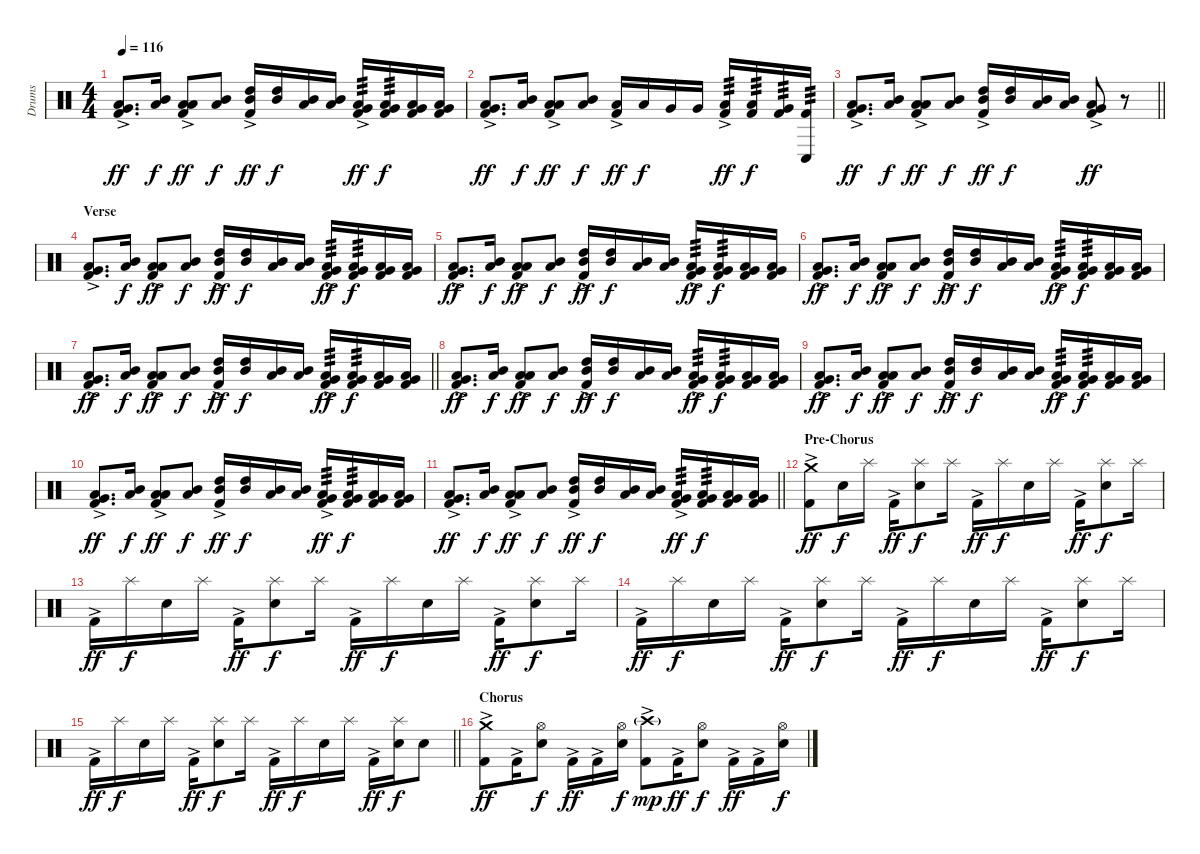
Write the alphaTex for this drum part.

\track ("Drums" "Drums") {instrument percussion}
\staff {score}
\articulation defaults
\ts (4 4)
\tempo 116
\clef neutral
\ks c
("Kick (hit) 2"{ac} "Low Floor Tom (hit)" "Very Low Tom (hit)").8{d dy ff} ("Mid Tom (hit)" "Low Floor Tom (hit)").16{dy f} ("Kick (hit) 2"{ac} "Low Tom (hit)" "Low Floor Tom (hit)").8{dy ff} ("Mid Tom (hit)" "Low Floor Tom (hit)").8{dy f} ("Kick (hit) 2"{ac} "Mid Tom (hit)" "High Tom (hit)").16{dy ff} ("Mid Tom (hit)" "High Tom (hit)").16{dy f} ("Low Tom (hit)" "Mid Tom (hit)").16 ("Low Tom (hit)" "Mid Tom (hit)").16 ("Kick (hit) 2"{ac} "Very Low Tom (hit)" "Low Tom (hit)").16{tp 3 dy ff} ("Kick (hit) 2" "Very Low Tom (hit)" "Low Tom (hit)").16{tp 3 dy f} ("Kick (hit) 2" "Low Floor Tom (hit)" "Very Low Tom (hit)").16 ("Kick (hit) 2" "Low Floor Tom (hit)" "Very Low Tom (hit)").16 |
("Kick (hit) 2"{ac} "Low Floor Tom (hit)" "Very Low Tom (hit)").8{d dy ff} ("Mid Tom (hit)" "Low Floor Tom (hit)").16{dy f} ("Kick (hit) 2"{ac} "Low Tom (hit)" "Low Floor Tom (hit)").8{dy ff} ("Mid Tom (hit)" "Low Floor Tom (hit)").8{dy f} ("Kick (hit) 2"{ac} "Low Tom (hit)").16{dy ff} "Low Tom (hit)".16{dy f} "Very Low Tom (hit)".16 "Very Low Tom (hit)".16 ("Kick (hit) 2"{ac} "Low Floor Tom (hit)").16{tp 3 dy ff} ("Kick (hit) 2" "Low Floor Tom (hit)").16{tp 3 dy f} ("Kick (hit) 2" "Very Low Tom (hit)").16{tp 3} ("Kick (hit) 2" "Conga low (hit)").16{tp 3} |
\barLineRight lightlight
("Kick (hit) 2"{ac} "Low Floor Tom (hit)" "Very Low Tom (hit)").8{d dy ff} ("Mid Tom (hit)" "Low Floor Tom (hit)").16{dy f} ("Kick (hit) 2"{ac} "Low Tom (hit)" "Low Floor Tom (hit)").8{dy ff} ("Mid Tom (hit)" "Low Floor Tom (hit)").8{dy f} ("Kick (hit) 2"{ac} "Mid Tom (hit)" "High Tom (hit)").16{dy ff} ("Mid Tom (hit)" "High Tom (hit)").16{dy f} ("Low Tom (hit)" "Mid Tom (hit)").16 ("Low Tom (hit)" "Mid Tom (hit)").16 ("Kick (hit) 2"{ac} "Low Floor Tom (hit)" "Very Low Tom (hit)").8{dy ff} r.8 |
\section ("" "Verse")
("Kick (hit) 2"{ac} "Low Floor Tom (hit)" "Very Low Tom (hit)").8{d} ("Mid Tom (hit)" "Low Floor Tom (hit)").16{dy f} ("Kick (hit) 2"{ac} "Low Tom (hit)" "Low Floor Tom (hit)").8{dy ff} ("Mid Tom (hit)" "Low Floor Tom (hit)").8{dy f} ("Kick (hit) 2"{ac} "Mid Tom (hit)" "High Tom (hit)").16{dy ff} ("Mid Tom (hit)" "High Tom (hit)").16{dy f} ("Low Tom (hit)" "Mid Tom (hit)").16 ("Low Tom (hit)" "Mid Tom (hit)").16 ("Kick (hit) 2"{ac} "Very Low Tom (hit)" "Low Tom (hit)").16{tp 3 dy ff} ("Kick (hit) 2" "Very Low Tom (hit)" "Low Tom (hit)").16{tp 3 dy f} ("Kick (hit) 2" "Low Floor Tom (hit)" "Very Low Tom (hit)").16 ("Kick (hit) 2" "Low Floor Tom (hit)" "Very Low Tom (hit)").16 |
("Kick (hit) 2"{ac} "Low Floor Tom (hit)" "Very Low Tom (hit)").8{d dy ff} ("Mid Tom (hit)" "Low Floor Tom (hit)").16{dy f} ("Kick (hit) 2"{ac} "Low Tom (hit)" "Low Floor Tom (hit)").8{dy ff} ("Mid Tom (hit)" "Low Floor Tom (hit)").8{dy f} ("Kick (hit) 2"{ac} "Mid Tom (hit)" "High Tom (hit)").16{dy ff} ("Mid Tom (hit)" "High Tom (hit)").16{dy f} ("Low Tom (hit)" "Mid Tom (hit)").16 ("Low Tom (hit)" "Mid Tom (hit)").16 ("Kick (hit) 2"{ac} "Very Low Tom (hit)" "Low Tom (hit)").16{tp 3 dy ff} ("Kick (hit) 2" "Very Low Tom (hit)" "Low Tom (hit)").16{tp 3 dy f} ("Kick (hit) 2" "Low Floor Tom (hit)" "Very Low Tom (hit)").16 ("Kick (hit) 2" "Low Floor Tom (hit)" "Very Low Tom (hit)").16 |
("Kick (hit) 2"{ac} "Low Floor Tom (hit)" "Very Low Tom (hit)").8{d dy ff} ("Mid Tom (hit)" "Low Floor Tom (hit)").16{dy f} ("Kick (hit) 2"{ac} "Low Tom (hit)" "Low Floor Tom (hit)").8{dy ff} ("Mid Tom (hit)" "Low Floor Tom (hit)").8{dy f} ("Kick (hit) 2"{ac} "Mid Tom (hit)" "High Tom (hit)").16{dy ff} ("Mid Tom (hit)" "High Tom (hit)").16{dy f} ("Low Tom (hit)" "Mid Tom (hit)").16 ("Low Tom (hit)" "Mid Tom (hit)").16 ("Kick (hit) 2"{ac} "Very Low Tom (hit)" "Low Tom (hit)").16{tp 3 dy ff} ("Kick (hit) 2" "Very Low Tom (hit)" "Low Tom (hit)").16{tp 3 dy f} ("Kick (hit) 2" "Low Floor Tom (hit)" "Very Low Tom (hit)").16 ("Kick (hit) 2" "Low Floor Tom (hit)" "Very Low Tom (hit)").16 |
\barLineRight lightlight
("Kick (hit) 2"{ac} "Low Floor Tom (hit)" "Very Low Tom (hit)").8{d dy ff} ("Mid Tom (hit)" "Low Floor Tom (hit)").16{dy f} ("Kick (hit) 2"{ac} "Low Tom (hit)" "Low Floor Tom (hit)").8{dy ff} ("Mid Tom (hit)" "Low Floor Tom (hit)").8{dy f} ("Kick (hit) 2"{ac} "Mid Tom (hit)" "High Tom (hit)").16{dy ff} ("Mid Tom (hit)" "High Tom (hit)").16{dy f} ("Low Tom (hit)" "Mid Tom (hit)").16 ("Low Tom (hit)" "Mid Tom (hit)").16 ("Kick (hit) 2"{ac} "Very Low Tom (hit)" "Low Tom (hit)").16{tp 3 dy ff} ("Kick (hit) 2" "Very Low Tom (hit)" "Low Tom (hit)").16{tp 3 dy f} ("Kick (hit) 2" "Low Floor Tom (hit)" "Very Low Tom (hit)").16 ("Kick (hit) 2" "Low Floor Tom (hit)" "Very Low Tom (hit)").16 |
\section ("" "")
("Kick (hit) 2"{ac} "Low Floor Tom (hit)" "Very Low Tom (hit)").8{d dy ff} ("Mid Tom (hit)" "Low Floor Tom (hit)").16{dy f} ("Kick (hit) 2"{ac} "Low Tom (hit)" "Low Floor Tom (hit)").8{dy ff} ("Mid Tom (hit)" "Low Floor Tom (hit)").8{dy f} ("Kick (hit) 2"{ac} "Mid Tom (hit)" "High Tom (hit)").16{dy ff} ("Mid Tom (hit)" "High Tom (hit)").16{dy f} ("Low Tom (hit)" "Mid Tom (hit)").16 ("Low Tom (hit)" "Mid Tom (hit)").16 ("Kick (hit) 2"{ac} "Very Low Tom (hit)" "Low Tom (hit)").16{tp 3 dy ff} ("Kick (hit) 2" "Very Low Tom (hit)" "Low Tom (hit)").16{tp 3 dy f} ("Kick (hit) 2" "Low Floor Tom (hit)" "Very Low Tom (hit)").16 ("Kick (hit) 2" "Low Floor Tom (hit)" "Very Low Tom (hit)").16 |
("Kick (hit) 2"{ac} "Low Floor Tom (hit)" "Very Low Tom (hit)").8{d dy ff} ("Mid Tom (hit)" "Low Floor Tom (hit)").16{dy f} ("Kick (hit) 2"{ac} "Low Tom (hit)" "Low Floor Tom (hit)").8{dy ff} ("Mid Tom (hit)" "Low Floor Tom (hit)").8{dy f} ("Kick (hit) 2"{ac} "Mid Tom (hit)" "High Tom (hit)").16{dy ff} ("Mid Tom (hit)" "High Tom (hit)").16{dy f} ("Low Tom (hit)" "Mid Tom (hit)").16 ("Low Tom (hit)" "Mid Tom (hit)").16 ("Kick (hit) 2"{ac} "Very Low Tom (hit)" "Low Tom (hit)").16{tp 3 dy ff} ("Kick (hit) 2" "Very Low Tom (hit)" "Low Tom (hit)").16{tp 3 dy f} ("Kick (hit) 2" "Low Floor Tom (hit)" "Very Low Tom (hit)").16 ("Kick (hit) 2" "Low Floor Tom (hit)" "Very Low Tom (hit)").16 |
("Kick (hit) 2"{ac} "Low Floor Tom (hit)" "Very Low Tom (hit)").8{d dy ff} ("Mid Tom (hit)" "Low Floor Tom (hit)").16{dy f} ("Kick (hit) 2"{ac} "Low Tom (hit)" "Low Floor Tom (hit)").8{dy ff} ("Mid Tom (hit)" "Low Floor Tom (hit)").8{dy f} ("Kick (hit) 2"{ac} "Mid Tom (hit)" "High Tom (hit)").16{dy ff} ("Mid Tom (hit)" "High Tom (hit)").16{dy f} ("Low Tom (hit)" "Mid Tom (hit)").16 ("Low Tom (hit)" "Mid Tom (hit)").16 ("Kick (hit) 2"{ac} "Very Low Tom (hit)" "Low Tom (hit)").16{tp 3 dy ff} ("Kick (hit) 2" "Very Low Tom (hit)" "Low Tom (hit)").16{tp 3 dy f} ("Kick (hit) 2" "Low Floor Tom (hit)" "Very Low Tom (hit)").16 ("Kick (hit) 2" "Low Floor Tom (hit)" "Very Low Tom (hit)").16 |
\barLineRight lightlight
("Kick (hit) 2"{ac} "Low Floor Tom (hit)" "Very Low Tom (hit)").8{d dy ff} ("Mid Tom (hit)" "Low Floor Tom (hit)").16{dy f} ("Kick (hit) 2"{ac} "Low Tom (hit)" "Low Floor Tom (hit)").8{dy ff} ("Mid Tom (hit)" "Low Floor Tom (hit)").8{dy f} ("Kick (hit) 2"{ac} "Mid Tom (hit)" "High Tom (hit)").16{dy ff} ("Mid Tom (hit)" "High Tom (hit)").16{dy f} ("Low Tom (hit)" "Mid Tom (hit)").16 ("Low Tom (hit)" "Mid Tom (hit)").16 ("Kick (hit) 2"{ac} "Very Low Tom (hit)" "Low Tom (hit)").16{tp 3 dy ff} ("Kick (hit) 2" "Very Low Tom (hit)" "Low Tom (hit)").16{tp 3 dy f} ("Kick (hit) 2" "Low Floor Tom (hit)" "Very Low Tom (hit)").16 ("Kick (hit) 2" "Low Floor Tom (hit)" "Very Low Tom (hit)").16 |
\section ("" "Pre-Chorus")
("Kick (hit) 2"{ac} "Crash medium (hit)").8{dy ff} "Snare (hit) 2".16{dy f} "Splash (hit)".16 "Kick (hit) 2"{ac}.16{dy ff} ("Snare (hit) 2" "Splash (hit)").8{dy f} "Splash (hit)".16 "Kick (hit) 2"{ac}.16{dy ff} "Splash (hit)".16{dy f} "Snare (hit) 2".16 "Splash (hit)".16 "Kick (hit) 2"{ac}.16{dy ff} ("Snare (hit) 2" "Splash (hit)").8{dy f} "Splash (hit)".16 |
"Kick (hit) 2"{ac}.16{dy ff} "Splash (hit)".16{dy f} "Snare (hit) 2".16 "Splash (hit)".16 "Kick (hit) 2"{ac}.16{dy ff} ("Snare (hit) 2" "Splash (hit)").8{dy f} "Splash (hit)".16 "Kick (hit) 2"{ac}.16{dy ff} "Splash (hit)".16{dy f} "Snare (hit) 2".16 "Splash (hit)".16 "Kick (hit) 2"{ac}.16{dy ff} ("Snare (hit) 2" "Splash (hit)").8{dy f} "Splash (hit)".16 |
"Kick (hit) 2"{ac}.16{dy ff} "Splash (hit)".16{dy f} "Snare (hit) 2".16 "Splash (hit)".16 "Kick (hit) 2"{ac}.16{dy ff} ("Snare (hit) 2" "Splash (hit)").8{dy f} "Splash (hit)".16 "Kick (hit) 2"{ac}.16{dy ff} "Splash (hit)".16{dy f} "Snare (hit) 2".16 "Splash (hit)".16 "Kick (hit) 2"{ac}.16{dy ff} ("Snare (hit) 2" "Splash (hit)").8{dy f} "Splash (hit)".16 |
\barLineRight lightlight "Kick (hit) 2"{ac}.16{dy ff} "Splash (hit)".16{dy f} "Snare (hit) 2".16 "Splash (hit)".16 "Kick (hit) 2"{ac}.16{dy ff}
("Snare (hit) 2" "Splash (hit)").8{dy f} "Splash (hit)".16 "Kick (hit) 2"{ac}.16{dy ff} "Splash (hit)".16{dy f} "Snare (hit) 2".16 "Splash (hit)".16 "Kick (hit) 2"{ac}.16{dy ff} ("Snare (hit) 2" "Splash (hit)").16{dy f} "Snare (hit) 2".8 |
\section ("" "Chorus")
("Kick (hit) 2"{ac} "Crash medium (hit)").8{dy ff} "Kick (hit) 2"{ac}.16 ("Snare (hit) 2" "Hi-Hat (open)").8{dy f} "Kick (hit) 2"{ac}.16{dy ff} "Kick (hit) 2"{ac}.16 ("Snare (hit) 2" "Hi-Hat (open)").16{dy f} ("Kick (hit) 2"{ac} "Crash high (hit)"{g}).8{dy mp} "Kick (hit) 2"{ac}.16{dy ff} ("Snare (hit) 2" "Hi-Hat (open)").8{dy f} "Kick (hit) 2"{ac}.16{dy ff} "Kick (hit) 2"{ac}.16 ("Snare (hit) 2" "Hi-Hat (open)").16{dy f}
